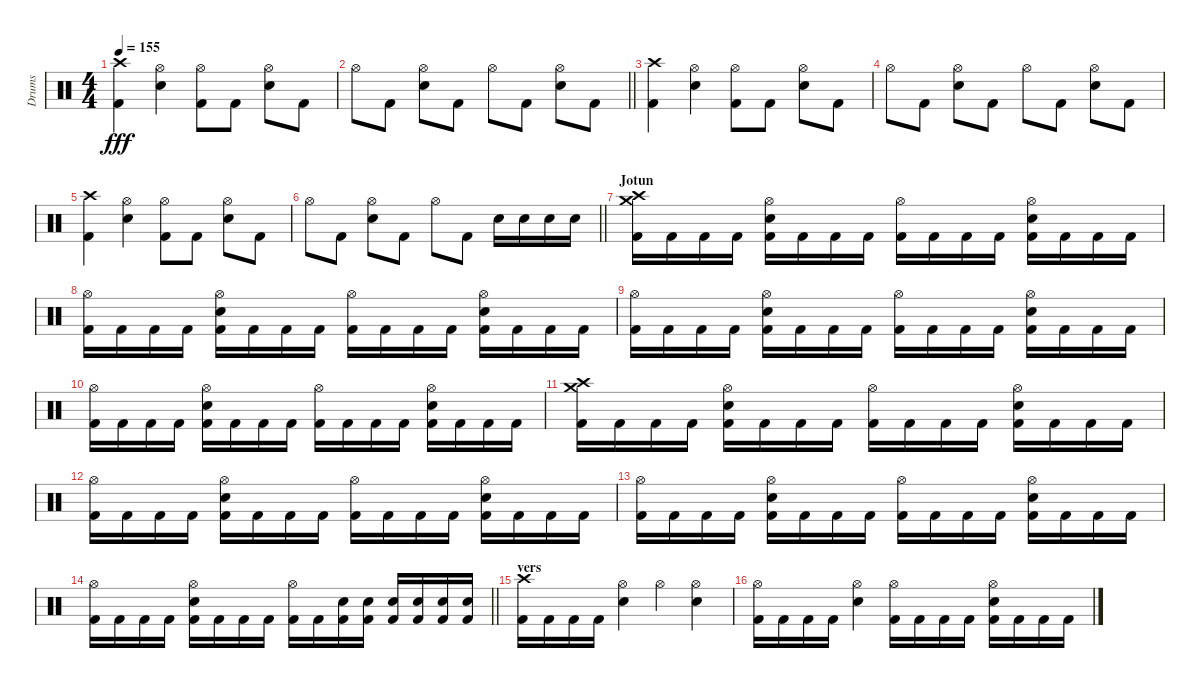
\track ("Drums" "Drums") {instrument percussion}
\staff {score}
\articulation defaults
\ts (4 4)
\tempo 155
\clef neutral
\ks c
("Crash high (hit)" "Kick (hit) 2").4{dy fff} ("Snare (hit) 2" "Hi-Hat (open)").4 ("Hi-Hat (open)" "Kick (hit) 2").8 "Kick (hit) 2".8 ("Snare (hit) 2" "Hi-Hat (open)").8 "Kick (hit) 2".8 |
\barLineRight lightlight "Hi-Hat (open)".8 "Kick (hit) 2".8
("Snare (hit) 2" "Hi-Hat (open)").8 "Kick (hit) 2".8 "Hi-Hat (open)".8 "Kick (hit) 2".8 ("Snare (hit) 2" "Hi-Hat (open)").8 "Kick (hit) 2".8 |
("Crash high (hit)" "Kick (hit) 2").4 ("Snare (hit) 2" "Hi-Hat (open)").4 ("Hi-Hat (open)" "Kick (hit) 2").8 "Kick (hit) 2".8 ("Snare (hit) 2" "Hi-Hat (open)").8 "Kick (hit) 2".8 |
"Hi-Hat (open)".8 "Kick (hit) 2".8 ("Snare (hit) 2" "Hi-Hat (open)").8 "Kick (hit) 2".8 "Hi-Hat (open)".8 "Kick (hit) 2".8 ("Snare (hit) 2" "Hi-Hat (open)").8 "Kick (hit) 2".8 |
("Crash high (hit)" "Kick (hit) 2").4 ("Snare (hit) 2" "Hi-Hat (open)").4 ("Hi-Hat (open)" "Kick (hit) 2").8 "Kick (hit) 2".8 ("Snare (hit) 2" "Hi-Hat (open)").8 "Kick (hit) 2".8 |
\barLineRight lightlight "Hi-Hat (open)".8 "Kick (hit) 2".8
("Snare (hit) 2" "Hi-Hat (open)").8 "Kick (hit) 2".8 "Hi-Hat (open)".8 "Kick (hit) 2".8 "Snare (hit) 2".16 "Snare (hit) 2".16 "Snare (hit) 2".16 "Snare (hit) 2".16 |
\section ("" "Jotun")
("Crash high (hit)" "Crash medium (hit)" "Kick (hit) 2").16 "Kick (hit) 2".16 "Kick (hit) 2".16 "Kick (hit) 2".16 ("Snare (hit) 2" "Hi-Hat (open)" "Kick (hit) 2").16 "Kick (hit) 2".16 "Kick (hit) 2".16 "Kick (hit) 2".16 ("Hi-Hat (open)" "Kick (hit) 2").16 "Kick (hit) 2".16 "Kick (hit) 2".16 "Kick (hit) 2".16 ("Snare (hit) 2" "Hi-Hat (open)" "Kick (hit) 2").16 "Kick (hit) 2".16 "Kick (hit) 2".16 "Kick (hit) 2".16 |
("Hi-Hat (open)" "Kick (hit) 2").16 "Kick (hit) 2".16 "Kick (hit) 2".16 "Kick (hit) 2".16 ("Snare (hit) 2" "Hi-Hat (open)" "Kick (hit) 2").16 "Kick (hit) 2".16 "Kick (hit) 2".16 "Kick (hit) 2".16 ("Hi-Hat (open)" "Kick (hit) 2").16 "Kick (hit) 2".16 "Kick (hit) 2".16 "Kick (hit) 2".16 ("Snare (hit) 2" "Hi-Hat (open)" "Kick (hit) 2").16 "Kick (hit) 2".16 "Kick (hit) 2".16 "Kick (hit) 2".16 |
("Hi-Hat (open)" "Kick (hit) 2").16 "Kick (hit) 2".16 "Kick (hit) 2".16 "Kick (hit) 2".16 ("Snare (hit) 2" "Hi-Hat (open)" "Kick (hit) 2").16 "Kick (hit) 2".16 "Kick (hit) 2".16 "Kick (hit) 2".16 ("Hi-Hat (open)" "Kick (hit) 2").16 "Kick (hit) 2".16 "Kick (hit) 2".16 "Kick (hit) 2".16 ("Snare (hit) 2" "Hi-Hat (open)" "Kick (hit) 2").16 "Kick (hit) 2".16 "Kick (hit) 2".16 "Kick (hit) 2".16 |
("Hi-Hat (open)" "Kick (hit) 2").16 "Kick (hit) 2".16 "Kick (hit) 2".16 "Kick (hit) 2".16 ("Snare (hit) 2" "Hi-Hat (open)" "Kick (hit) 2").16 "Kick (hit) 2".16 "Kick (hit) 2".16 "Kick (hit) 2".16 ("Hi-Hat (open)" "Kick (hit) 2").16 "Kick (hit) 2".16 "Kick (hit) 2".16 "Kick (hit) 2".16 ("Snare (hit) 2" "Hi-Hat (open)" "Kick (hit) 2").16 "Kick (hit) 2".16 "Kick (hit) 2".16 "Kick (hit) 2".16 |
("Crash high (hit)" "Crash medium (hit)" "Kick (hit) 2").16 "Kick (hit) 2".16 "Kick (hit) 2".16 "Kick (hit) 2".16 ("Snare (hit) 2" "Hi-Hat (open)" "Kick (hit) 2").16 "Kick (hit) 2".16 "Kick (hit) 2".16 "Kick (hit) 2".16 ("Hi-Hat (open)" "Kick (hit) 2").16 "Kick (hit) 2".16 "Kick (hit) 2".16 "Kick (hit) 2".16 ("Snare (hit) 2" "Hi-Hat (open)" "Kick (hit) 2").16 "Kick (hit) 2".16 "Kick (hit) 2".16 "Kick (hit) 2".16 |
("Hi-Hat (open)" "Kick (hit) 2").16 "Kick (hit) 2".16 "Kick (hit) 2".16 "Kick (hit) 2".16 ("Snare (hit) 2" "Hi-Hat (open)" "Kick (hit) 2").16 "Kick (hit) 2".16 "Kick (hit) 2".16 "Kick (hit) 2".16 ("Hi-Hat (open)" "Kick (hit) 2").16 "Kick (hit) 2".16 "Kick (hit) 2".16 "Kick (hit) 2".16 ("Snare (hit) 2" "Hi-Hat (open)" "Kick (hit) 2").16 "Kick (hit) 2".16 "Kick (hit) 2".16 "Kick (hit) 2".16 |
("Hi-Hat (open)" "Kick (hit) 2").16 "Kick (hit) 2".16 "Kick (hit) 2".16 "Kick (hit) 2".16 ("Snare (hit) 2" "Hi-Hat (open)" "Kick (hit) 2").16 "Kick (hit) 2".16 "Kick (hit) 2".16 "Kick (hit) 2".16 ("Hi-Hat (open)" "Kick (hit) 2").16 "Kick (hit) 2".16 "Kick (hit) 2".16 "Kick (hit) 2".16 ("Snare (hit) 2" "Hi-Hat (open)" "Kick (hit) 2").16 "Kick (hit) 2".16 "Kick (hit) 2".16 "Kick (hit) 2".16 |
\barLineRight lightlight
("Hi-Hat (open)" "Kick (hit) 2").16 "Kick (hit) 2".16 "Kick (hit) 2".16 "Kick (hit) 2".16 ("Snare (hit) 2" "Hi-Hat (open)" "Kick (hit) 2").16 "Kick (hit) 2".16 "Kick (hit) 2".16 "Kick (hit) 2".16 ("Hi-Hat (open)" "Kick (hit) 2").16 "Kick (hit) 2".16 ("Snare (hit) 2" "Kick (hit) 2").16 ("Snare (hit) 2" "Kick (hit) 2").16 ("Snare (hit) 2" "Kick (hit) 2").16 ("Snare (hit) 2" "Kick (hit) 2").16 ("Snare (hit) 2" "Kick (hit) 2").16 ("Snare (hit) 2" "Kick (hit) 2").16 |
\section ("" "vers")
("Crash high (hit)" "Kick (hit) 2").16 "Kick (hit) 2".16 "Kick (hit) 2".16 "Kick (hit) 2".16 ("Snare (hit) 2" "Hi-Hat (open)").4 "Hi-Hat (open)".4 ("Snare (hit) 2" "Hi-Hat (open)").4 |
("Hi-Hat (open)" "Kick (hit) 2").16 "Kick (hit) 2".16 "Kick (hit) 2".16 "Kick (hit) 2".16 ("Snare (hit) 2" "Hi-Hat (open)").4 ("Hi-Hat (open)" "Kick (hit) 2").16 "Kick (hit) 2".16 "Kick (hit) 2".16 "Kick (hit) 2".16 ("Snare (hit) 2" "Hi-Hat (open)" "Kick (hit) 2").16 "Kick (hit) 2".16 "Kick (hit) 2".16 "Kick (hit) 2".16
